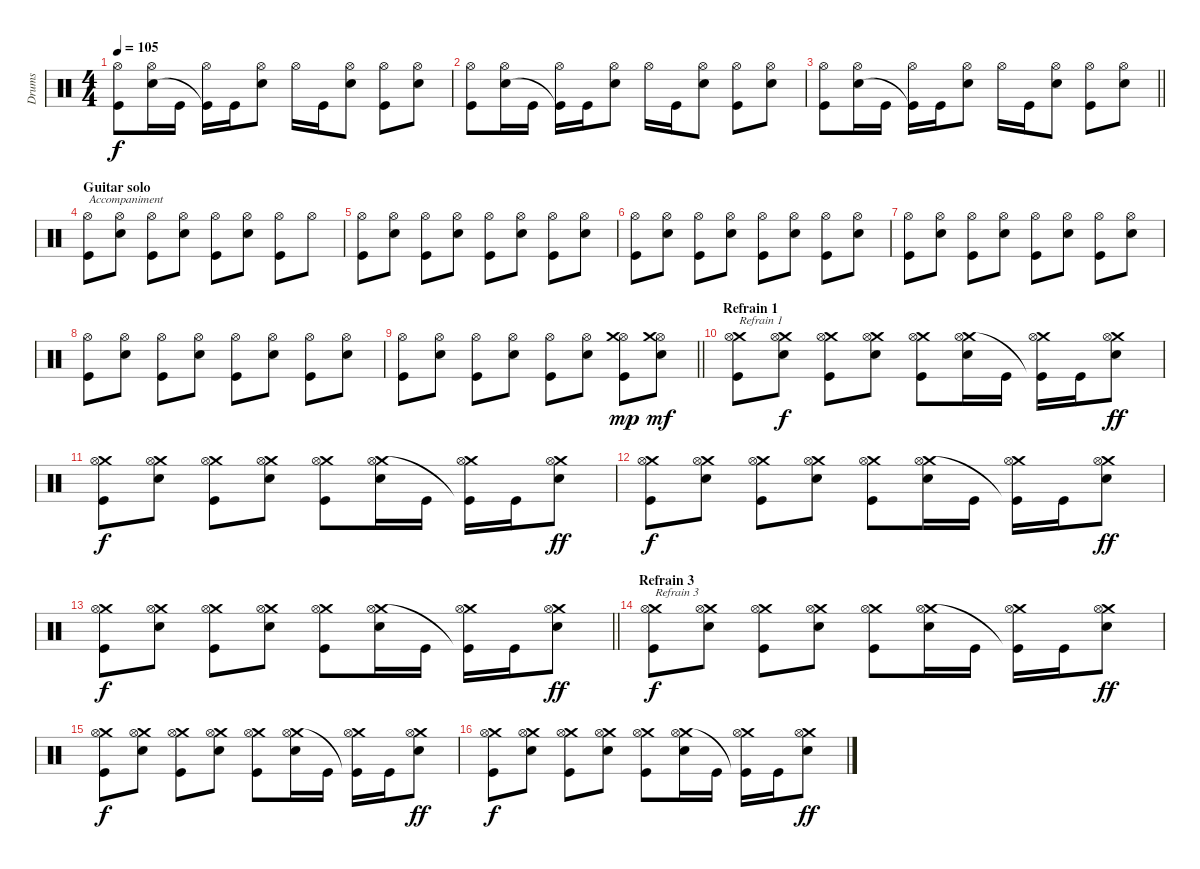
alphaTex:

\track ("Drums" "Drums") {instrument percussion}
\staff {score}
\articulation defaults
\ts (4 4)
\tempo 105
\clef neutral
\ks c
("Hi-Hat (open)" "Kick (hit)").8{dy f} ("Hi-Hat (open)" "Electric Snare (hit)").16 "Kick (hit)".16 ("Hi-Hat (open)" "Kick (hit)"{t}).16 "Kick (hit)".16 ("Hi-Hat (open)" "Electric Snare (hit)").8 "Hi-Hat (open)".16 "Kick (hit)".16 ("Hi-Hat (open)" "Electric Snare (hit)").8 ("Hi-Hat (open)" "Kick (hit)").8 ("Hi-Hat (open)" "Electric Snare (hit)").8 |
("Hi-Hat (open)" "Kick (hit)").8 ("Hi-Hat (open)" "Electric Snare (hit)").16 "Kick (hit)".16 ("Hi-Hat (open)" "Kick (hit)"{t}).16 "Kick (hit)".16 ("Hi-Hat (open)" "Electric Snare (hit)").8 "Hi-Hat (open)".16 "Kick (hit)".16 ("Hi-Hat (open)" "Electric Snare (hit)").8 ("Hi-Hat (open)" "Kick (hit)").8 ("Hi-Hat (open)" "Electric Snare (hit)").8 |
\barLineRight lightlight
("Hi-Hat (open)" "Kick (hit)").8 ("Hi-Hat (open)" "Electric Snare (hit)").16 "Kick (hit)".16 ("Hi-Hat (open)" "Kick (hit)"{t}).16 "Kick (hit)".16 ("Hi-Hat (open)" "Electric Snare (hit)").8 "Hi-Hat (open)".16 "Kick (hit)".16 ("Hi-Hat (open)" "Electric Snare (hit)").8 ("Hi-Hat (open)" "Kick (hit)").8 ("Hi-Hat (open)" "Electric Snare (hit)").8 |
\section ("" "Guitar solo")
("Hi-Hat (open)" "Kick (hit)").8{txt "Accompaniment"} ("Electric Snare (hit)" "Hi-Hat (open)").8 ("Hi-Hat (open)" "Kick (hit)").8 ("Electric Snare (hit)" "Hi-Hat (open)").8 ("Hi-Hat (open)" "Kick (hit)").8 ("Electric Snare (hit)" "Hi-Hat (open)").8 ("Hi-Hat (open)" "Kick (hit)").8 "Hi-Hat (open)".8 |
("Hi-Hat (open)" "Kick (hit)").8 ("Electric Snare (hit)" "Hi-Hat (open)").8 ("Hi-Hat (open)" "Kick (hit)").8 ("Electric Snare (hit)" "Hi-Hat (open)").8 ("Hi-Hat (open)" "Kick (hit)").8 ("Electric Snare (hit)" "Hi-Hat (open)").8 ("Hi-Hat (open)" "Kick (hit)").8 ("Electric Snare (hit)" "Hi-Hat (open)").8 |
("Hi-Hat (open)" "Kick (hit)").8 ("Electric Snare (hit)" "Hi-Hat (open)").8 ("Hi-Hat (open)" "Kick (hit)").8 ("Electric Snare (hit)" "Hi-Hat (open)").8 ("Hi-Hat (open)" "Kick (hit)").8 ("Electric Snare (hit)" "Hi-Hat (open)").8 ("Hi-Hat (open)" "Kick (hit)").8 ("Electric Snare (hit)" "Hi-Hat (open)").8 |
("Hi-Hat (open)" "Kick (hit)").8 ("Electric Snare (hit)" "Hi-Hat (open)").8 ("Hi-Hat (open)" "Kick (hit)").8 ("Electric Snare (hit)" "Hi-Hat (open)").8 ("Hi-Hat (open)" "Kick (hit)").8 ("Electric Snare (hit)" "Hi-Hat (open)").8 ("Hi-Hat (open)" "Kick (hit)").8 ("Electric Snare (hit)" "Hi-Hat (open)").8 |
("Hi-Hat (open)" "Kick (hit)").8 ("Electric Snare (hit)" "Hi-Hat (open)").8 ("Hi-Hat (open)" "Kick (hit)").8 ("Electric Snare (hit)" "Hi-Hat (open)").8 ("Hi-Hat (open)" "Kick (hit)").8 ("Electric Snare (hit)" "Hi-Hat (open)").8 ("Hi-Hat (open)" "Kick (hit)").8 ("Electric Snare (hit)" "Hi-Hat (open)").8 |
\barLineRight lightlight
("Hi-Hat (open)" "Kick (hit)").8 ("Electric Snare (hit)" "Hi-Hat (open)").8 ("Hi-Hat (open)" "Kick (hit)").8 ("Electric Snare (hit)" "Hi-Hat (open)").8 ("Hi-Hat (open)" "Kick (hit)").8 ("Electric Snare (hit)" "Hi-Hat (open)").8 ("Hi-Hat (open)" "Crash medium (hit)" "Kick (hit)").8{dy mp} ("Electric Snare (hit)" "Hi-Hat (open)" "Crash medium (hit)").8{dy mf} |
\section ("" "Refrain 1")
("Crash medium (hit)" "Hi-Hat (open)" "Kick (hit)").8{txt "Refrain 1"} ("Crash medium (hit)" "Electric Snare (hit)" "Hi-Hat (open)").8{dy f} ("Crash medium (hit)" "Hi-Hat (open)" "Kick (hit)").8 ("Crash medium (hit)" "Electric Snare (hit)" "Hi-Hat (open)").8 ("Crash medium (hit)" "Hi-Hat (open)" "Kick (hit)").8 ("Crash medium (hit)" "Electric Snare (hit)" "Hi-Hat (open)").16 "Kick (hit)".16 ("Crash medium (hit)" "Hi-Hat (open)" "Kick (hit)"{t}).16 "Kick (hit)".16 ("Crash medium (hit)" "Electric Snare (hit)" "Hi-Hat (open)").8{dy ff} |
("Crash medium (hit)" "Hi-Hat (open)" "Kick (hit)").8{dy f} ("Crash medium (hit)" "Electric Snare (hit)" "Hi-Hat (open)").8 ("Crash medium (hit)" "Hi-Hat (open)" "Kick (hit)").8 ("Crash medium (hit)" "Electric Snare (hit)" "Hi-Hat (open)").8 ("Crash medium (hit)" "Hi-Hat (open)" "Kick (hit)").8 ("Crash medium (hit)" "Electric Snare (hit)" "Hi-Hat (open)").16 "Kick (hit)".16 ("Crash medium (hit)" "Hi-Hat (open)" "Kick (hit)"{t}).16 "Kick (hit)".16 ("Crash medium (hit)" "Electric Snare (hit)" "Hi-Hat (open)").8{dy ff} |
("Crash medium (hit)" "Hi-Hat (open)" "Kick (hit)").8{dy f} ("Crash medium (hit)" "Electric Snare (hit)" "Hi-Hat (open)").8 ("Crash medium (hit)" "Hi-Hat (open)" "Kick (hit)").8 ("Crash medium (hit)" "Electric Snare (hit)" "Hi-Hat (open)").8 ("Crash medium (hit)" "Hi-Hat (open)" "Kick (hit)").8 ("Crash medium (hit)" "Electric Snare (hit)" "Hi-Hat (open)").16 "Kick (hit)".16 ("Crash medium (hit)" "Hi-Hat (open)" "Kick (hit)"{t}).16 "Kick (hit)".16 ("Crash medium (hit)" "Electric Snare (hit)" "Hi-Hat (open)").8{dy ff} |
\barLineRight lightlight
("Crash medium (hit)" "Hi-Hat (open)" "Kick (hit)").8{dy f} ("Crash medium (hit)" "Electric Snare (hit)" "Hi-Hat (open)").8 ("Crash medium (hit)" "Hi-Hat (open)" "Kick (hit)").8 ("Crash medium (hit)" "Electric Snare (hit)" "Hi-Hat (open)").8 ("Crash medium (hit)" "Hi-Hat (open)" "Kick (hit)").8 ("Crash medium (hit)" "Electric Snare (hit)" "Hi-Hat (open)").16 "Kick (hit)".16 ("Crash medium (hit)" "Hi-Hat (open)" "Kick (hit)"{t}).16 "Kick (hit)".16 ("Crash medium (hit)" "Electric Snare (hit)" "Hi-Hat (open)").8{dy ff} |
\section ("" "Refrain 3")
("Crash medium (hit)" "Hi-Hat (open)" "Kick (hit)").8{txt "Refrain 3" dy f} ("Crash medium (hit)" "Electric Snare (hit)" "Hi-Hat (open)").8 ("Crash medium (hit)" "Hi-Hat (open)" "Kick (hit)").8 ("Crash medium (hit)" "Electric Snare (hit)" "Hi-Hat (open)").8 ("Crash medium (hit)" "Hi-Hat (open)" "Kick (hit)").8 ("Crash medium (hit)" "Electric Snare (hit)" "Hi-Hat (open)").16 "Kick (hit)".16 ("Crash medium (hit)" "Hi-Hat (open)" "Kick (hit)"{t}).16 "Kick (hit)".16 ("Crash medium (hit)" "Electric Snare (hit)" "Hi-Hat (open)").8{dy ff} |
("Crash medium (hit)" "Hi-Hat (open)" "Kick (hit)").8{dy f} ("Crash medium (hit)" "Electric Snare (hit)" "Hi-Hat (open)").8 ("Crash medium (hit)" "Hi-Hat (open)" "Kick (hit)").8 ("Crash medium (hit)" "Electric Snare (hit)" "Hi-Hat (open)").8 ("Crash medium (hit)" "Hi-Hat (open)" "Kick (hit)").8 ("Crash medium (hit)" "Electric Snare (hit)" "Hi-Hat (open)").16 "Kick (hit)".16 ("Crash medium (hit)" "Hi-Hat (open)" "Kick (hit)"{t}).16 "Kick (hit)".16 ("Crash medium (hit)" "Electric Snare (hit)" "Hi-Hat (open)").8{dy ff} |
("Crash medium (hit)" "Hi-Hat (open)" "Kick (hit)").8{dy f} ("Crash medium (hit)" "Electric Snare (hit)" "Hi-Hat (open)").8 ("Crash medium (hit)" "Hi-Hat (open)" "Kick (hit)").8 ("Crash medium (hit)" "Electric Snare (hit)" "Hi-Hat (open)").8 ("Crash medium (hit)" "Hi-Hat (open)" "Kick (hit)").8 ("Crash medium (hit)" "Electric Snare (hit)" "Hi-Hat (open)").16 "Kick (hit)".16 ("Crash medium (hit)" "Hi-Hat (open)" "Kick (hit)"{t}).16 "Kick (hit)".16 ("Crash medium (hit)" "Electric Snare (hit)" "Hi-Hat (open)").8{dy ff}
